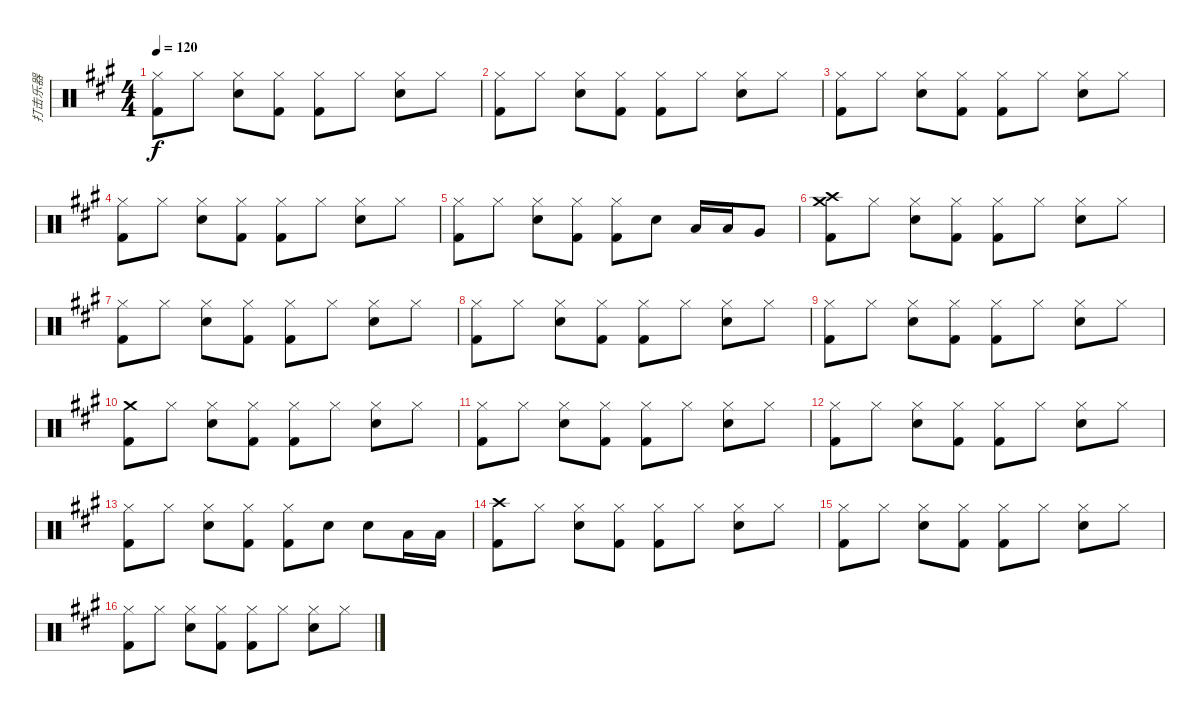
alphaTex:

\track ("打击乐器" "打击乐器") {instrument percussion}
\staff {score}
\articulation defaults
\ts (4 4)
\tempo 120
\clef neutral
\ks a
("Hi-Hat (closed)" "Kick (hit) 2").8{dy f} "Hi-Hat (closed)".8 ("Hi-Hat (closed)" "Electric Snare (hit)").8 ("Hi-Hat (closed)" "Kick (hit) 2").8 ("Hi-Hat (closed)" "Kick (hit) 2").8 "Hi-Hat (closed)".8 ("Hi-Hat (closed)" "Electric Snare (hit)").8 "Hi-Hat (closed)".8 |
("Hi-Hat (closed)" "Kick (hit) 2").8 "Hi-Hat (closed)".8 ("Hi-Hat (closed)" "Electric Snare (hit)").8 ("Hi-Hat (closed)" "Kick (hit) 2").8 ("Hi-Hat (closed)" "Kick (hit) 2").8 "Hi-Hat (closed)".8 ("Hi-Hat (closed)" "Electric Snare (hit)").8 "Hi-Hat (closed)".8 |
("Hi-Hat (closed)" "Kick (hit) 2").8 "Hi-Hat (closed)".8 ("Hi-Hat (closed)" "Electric Snare (hit)").8 ("Hi-Hat (closed)" "Kick (hit) 2").8 ("Hi-Hat (closed)" "Kick (hit) 2").8 "Hi-Hat (closed)".8 ("Hi-Hat (closed)" "Electric Snare (hit)").8 "Hi-Hat (closed)".8 |
("Hi-Hat (closed)" "Kick (hit) 2").8 "Hi-Hat (closed)".8 ("Hi-Hat (closed)" "Electric Snare (hit)").8 ("Hi-Hat (closed)" "Kick (hit) 2").8 ("Hi-Hat (closed)" "Kick (hit) 2").8 "Hi-Hat (closed)".8 ("Hi-Hat (closed)" "Electric Snare (hit)").8 "Hi-Hat (closed)".8 |
("Hi-Hat (closed)" "Kick (hit) 2").8 "Hi-Hat (closed)".8 ("Hi-Hat (closed)" "Electric Snare (hit)").8 ("Hi-Hat (closed)" "Kick (hit) 2").8 ("Hi-Hat (closed)" "Kick (hit) 2").8 "Electric Snare (hit)".8 "Low Tom (hit)".16 "Low Tom (hit)".16 "Very Low Tom (hit)".8 |
("Crash high (hit)" "Crash medium (hit)" "Kick (hit) 2").8 "Hi-Hat (closed)".8 ("Hi-Hat (closed)" "Electric Snare (hit)").8 ("Hi-Hat (closed)" "Kick (hit) 2").8 ("Hi-Hat (closed)" "Kick (hit) 2").8 "Hi-Hat (closed)".8 ("Hi-Hat (closed)" "Electric Snare (hit)").8 "Hi-Hat (closed)".8 |
("Hi-Hat (closed)" "Kick (hit) 2").8 "Hi-Hat (closed)".8 ("Hi-Hat (closed)" "Electric Snare (hit)").8 ("Hi-Hat (closed)" "Kick (hit) 2").8 ("Hi-Hat (closed)" "Kick (hit) 2").8 "Hi-Hat (closed)".8 ("Hi-Hat (closed)" "Electric Snare (hit)").8 "Hi-Hat (closed)".8 |
("Hi-Hat (closed)" "Kick (hit) 2").8 "Hi-Hat (closed)".8 ("Hi-Hat (closed)" "Electric Snare (hit)").8 ("Hi-Hat (closed)" "Kick (hit) 2").8 ("Hi-Hat (closed)" "Kick (hit) 2").8 "Hi-Hat (closed)".8 ("Hi-Hat (closed)" "Electric Snare (hit)").8 "Hi-Hat (closed)".8 |
("Hi-Hat (closed)" "Kick (hit) 2").8 "Hi-Hat (closed)".8 ("Hi-Hat (closed)" "Electric Snare (hit)").8 ("Hi-Hat (closed)" "Kick (hit) 2").8 ("Hi-Hat (closed)" "Kick (hit) 2").8 "Hi-Hat (closed)".8 ("Hi-Hat (closed)" "Electric Snare (hit)").8 "Hi-Hat (closed)".8 |
("Crash medium (hit)" "Kick (hit) 2").8 "Hi-Hat (closed)".8 ("Hi-Hat (closed)" "Electric Snare (hit)").8 ("Hi-Hat (closed)" "Kick (hit) 2").8 ("Hi-Hat (closed)" "Kick (hit) 2").8 "Hi-Hat (closed)".8 ("Hi-Hat (closed)" "Electric Snare (hit)").8 "Hi-Hat (closed)".8 |
("Hi-Hat (closed)" "Kick (hit) 2").8 "Hi-Hat (closed)".8 ("Hi-Hat (closed)" "Electric Snare (hit)").8 ("Hi-Hat (closed)" "Kick (hit) 2").8 ("Hi-Hat (closed)" "Kick (hit) 2").8 "Hi-Hat (closed)".8 ("Hi-Hat (closed)" "Electric Snare (hit)").8 "Hi-Hat (closed)".8 |
("Hi-Hat (closed)" "Kick (hit) 2").8 "Hi-Hat (closed)".8 ("Hi-Hat (closed)" "Electric Snare (hit)").8 ("Hi-Hat (closed)" "Kick (hit) 2").8 ("Hi-Hat (closed)" "Kick (hit) 2").8 "Hi-Hat (closed)".8 ("Hi-Hat (closed)" "Electric Snare (hit)").8 "Hi-Hat (closed)".8 |
("Hi-Hat (closed)" "Kick (hit) 2").8 "Hi-Hat (closed)".8 ("Hi-Hat (closed)" "Electric Snare (hit)").8 ("Hi-Hat (closed)" "Kick (hit) 2").8 ("Hi-Hat (closed)" "Kick (hit) 2").8 "Electric Snare (hit)".8 "Electric Snare (hit)".8 "Low Tom (hit)".16 "Low Tom (hit)".16 |
("Crash high (hit)" "Kick (hit) 2").8 "Hi-Hat (closed)".8 ("Hi-Hat (closed)" "Electric Snare (hit)").8 ("Hi-Hat (closed)" "Kick (hit) 2").8 ("Hi-Hat (closed)" "Kick (hit) 2").8 "Hi-Hat (closed)".8 ("Hi-Hat (closed)" "Electric Snare (hit)").8 "Hi-Hat (closed)".8 |
("Hi-Hat (closed)" "Kick (hit) 2").8 "Hi-Hat (closed)".8 ("Hi-Hat (closed)" "Electric Snare (hit)").8 ("Hi-Hat (closed)" "Kick (hit) 2").8 ("Hi-Hat (closed)" "Kick (hit) 2").8 "Hi-Hat (closed)".8 ("Hi-Hat (closed)" "Electric Snare (hit)").8 "Hi-Hat (closed)".8 |
("Hi-Hat (closed)" "Kick (hit) 2").8 "Hi-Hat (closed)".8 ("Hi-Hat (closed)" "Electric Snare (hit)").8 ("Hi-Hat (closed)" "Kick (hit) 2").8 ("Hi-Hat (closed)" "Kick (hit) 2").8 "Hi-Hat (closed)".8 ("Hi-Hat (closed)" "Electric Snare (hit)").8 "Hi-Hat (closed)".8
